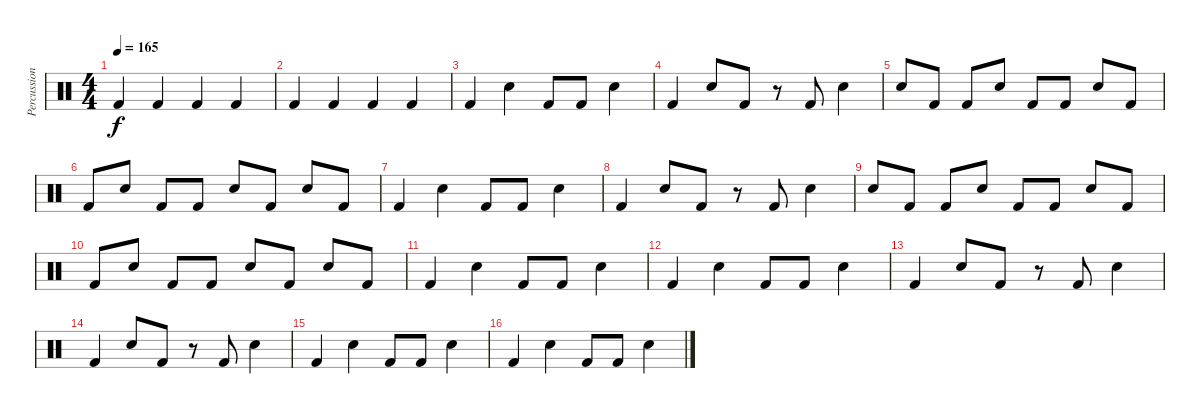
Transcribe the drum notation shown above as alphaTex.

\track ("Percussion" "Percussion") {instrument percussion}
\staff {score}
\articulation defaults
\ts (4 4)
\tempo 165
\clef neutral
\ks c "Kick (hit) 2".4{dy f} "Kick (hit) 2".4 "Kick (hit) 2".4 "Kick (hit) 2".4
|
"Kick (hit) 2".4 "Kick (hit) 2".4 "Kick (hit) 2".4 "Kick (hit) 2".4 |
"Kick (hit) 2".4 "Snare (hit) 2".4 "Kick (hit) 2".8 "Kick (hit) 2".8 "Snare (hit) 2".4 |
"Kick (hit) 2".4 "Snare (hit) 2".8 "Kick (hit) 2".8 r.8 "Kick (hit) 2".8 "Snare (hit) 2".4 |
"Snare (hit) 2".8 "Kick (hit) 2".8 "Kick (hit) 2".8 "Snare (hit) 2".8 "Kick (hit) 2".8 "Kick (hit) 2".8 "Snare (hit) 2".8 "Kick (hit) 2".8 |
"Kick (hit) 2".8 "Snare (hit) 2".8 "Kick (hit) 2".8 "Kick (hit) 2".8 "Snare (hit) 2".8 "Kick (hit) 2".8 "Snare (hit) 2".8 "Kick (hit) 2".8 |
"Kick (hit) 2".4 "Snare (hit) 2".4 "Kick (hit) 2".8 "Kick (hit) 2".8 "Snare (hit) 2".4 |
"Kick (hit) 2".4 "Snare (hit) 2".8 "Kick (hit) 2".8 r.8 "Kick (hit) 2".8 "Snare (hit) 2".4 |
"Snare (hit) 2".8 "Kick (hit) 2".8 "Kick (hit) 2".8 "Snare (hit) 2".8 "Kick (hit) 2".8 "Kick (hit) 2".8 "Snare (hit) 2".8 "Kick (hit) 2".8 |
"Kick (hit) 2".8 "Snare (hit) 2".8 "Kick (hit) 2".8 "Kick (hit) 2".8 "Snare (hit) 2".8 "Kick (hit) 2".8 "Snare (hit) 2".8 "Kick (hit) 2".8 |
"Kick (hit) 2".4 "Snare (hit) 2".4 "Kick (hit) 2".8 "Kick (hit) 2".8 "Snare (hit) 2".4 |
"Kick (hit) 2".4 "Snare (hit) 2".4 "Kick (hit) 2".8 "Kick (hit) 2".8 "Snare (hit) 2".4 |
"Kick (hit) 2".4 "Snare (hit) 2".8 "Kick (hit) 2".8 r.8 "Kick (hit) 2".8 "Snare (hit) 2".4 |
"Kick (hit) 2".4 "Snare (hit) 2".8 "Kick (hit) 2".8 r.8 "Kick (hit) 2".8 "Snare (hit) 2".4 |
"Kick (hit) 2".4 "Snare (hit) 2".4 "Kick (hit) 2".8 "Kick (hit) 2".8 "Snare (hit) 2".4 |
"Kick (hit) 2".4 "Snare (hit) 2".4 "Kick (hit) 2".8 "Kick (hit) 2".8 "Snare (hit) 2".4
